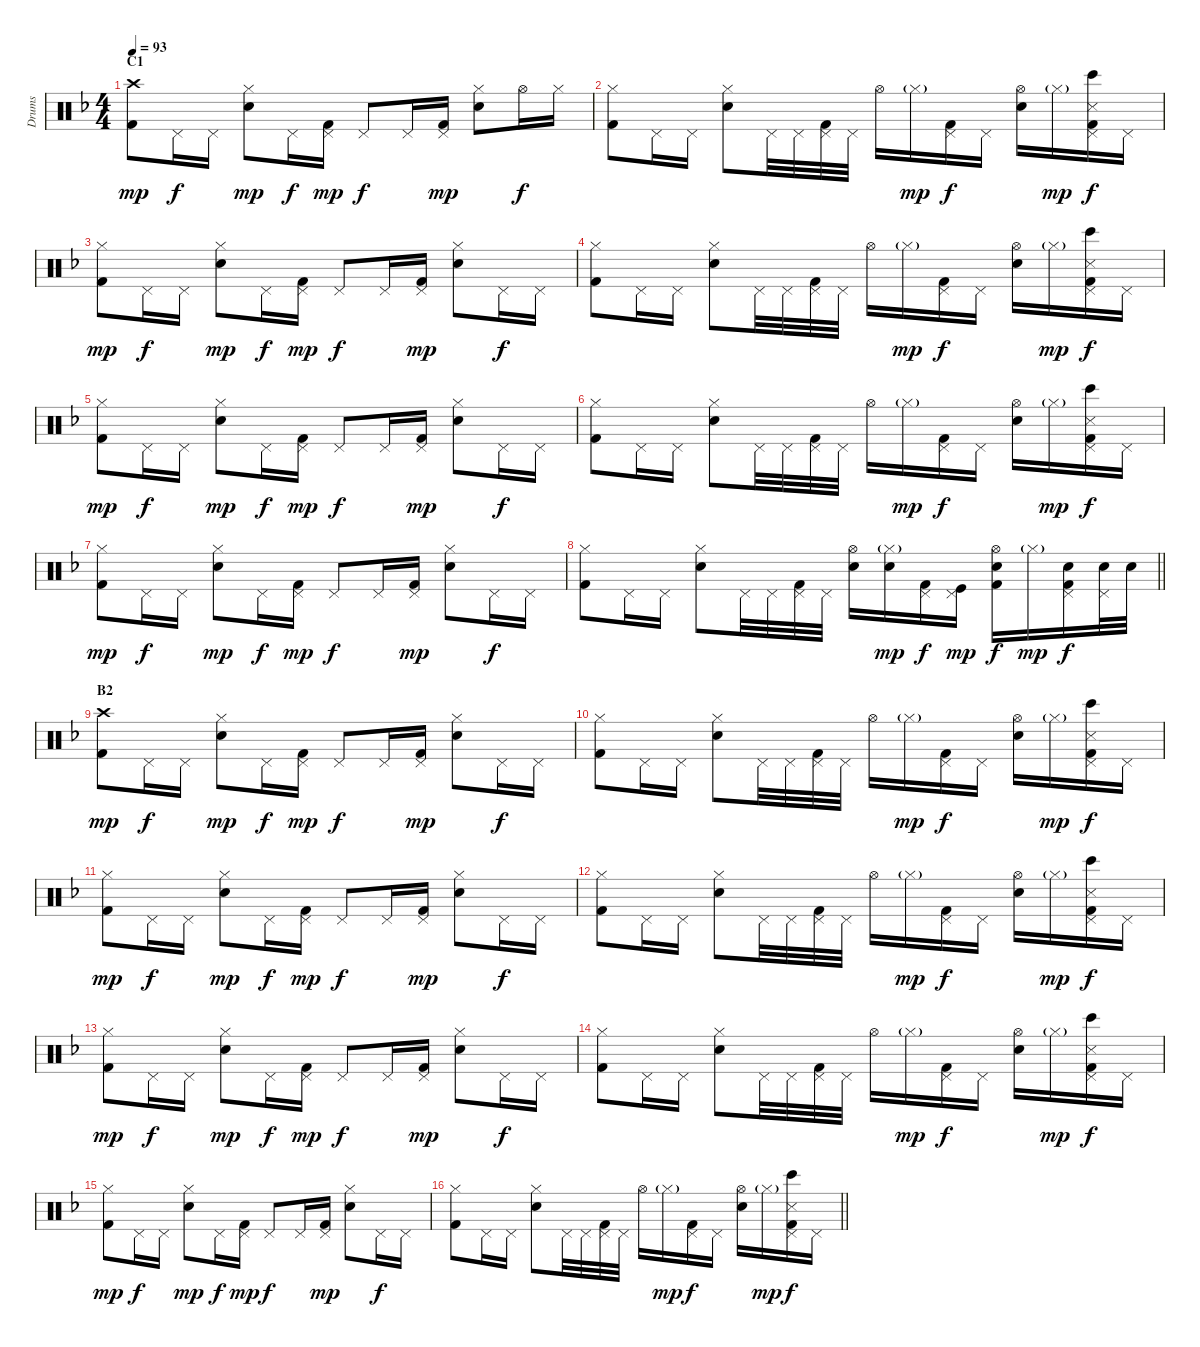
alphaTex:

\track ("Drums" "Drums") {instrument percussion}
\staff {score}
\articulation defaults
\ts (4 4)
\section ("" "C1")
\tempo 93
\clef neutral
\ks f
("Crash high (hit)" "Kick (hit) 2").8{dy mp} "Pedal Hi-Hat (hit)".16{dy f} "Pedal Hi-Hat (hit)".16 ("Hi-Hat (closed)" "Electric Snare (hit)").8{dy mp} "Pedal Hi-Hat (hit)".16{dy f} ("Pedal Hi-Hat (hit)" "Kick (hit) 2").16{dy mp} "Pedal Hi-Hat (hit)".8{dy f} "Pedal Hi-Hat (hit)".16 ("Pedal Hi-Hat (hit)" "Kick (hit) 2").16{dy mp} ("Hi-Hat (closed)" "Electric Snare (hit)").8 "Hi-Hat (open)".16{dy f} "Hi-Hat (closed)".16 |
("Hi-Hat (closed)" "Kick (hit) 2").8 "Pedal Hi-Hat (hit)".16 "Pedal Hi-Hat (hit)".16 ("Hi-Hat (closed)" "Electric Snare (hit)").8 "Pedal Hi-Hat (hit)".32 "Pedal Hi-Hat (hit)".32 ("Pedal Hi-Hat (hit)" "Kick (hit) 2").32 "Pedal Hi-Hat (hit)".32 "Hi-Hat (open)".16 "Hi-Hat (closed)"{g}.16{dy mp} ("Pedal Hi-Hat (hit)" "Kick (hit) 2").16{dy f} "Pedal Hi-Hat (hit)".16 ("Hi-Hat (open)" "Electric Snare (hit)").16 "Hi-Hat (closed)"{g}.16{dy mp} ("Pedal Hi-Hat (hit)" "Snare (side stick) 3" "Bongo High (hit)" "Kick (hit) 2").16{dy f} "Pedal Hi-Hat (hit)".16 |
("Hi-Hat (closed)" "Kick (hit) 2").8{dy mp} "Pedal Hi-Hat (hit)".16{dy f} "Pedal Hi-Hat (hit)".16 ("Hi-Hat (closed)" "Electric Snare (hit)").8{dy mp} "Pedal Hi-Hat (hit)".16{dy f} ("Pedal Hi-Hat (hit)" "Kick (hit) 2").16{dy mp} "Pedal Hi-Hat (hit)".8{dy f} "Pedal Hi-Hat (hit)".16 ("Pedal Hi-Hat (hit)" "Kick (hit) 2").16{dy mp} ("Hi-Hat (closed)" "Electric Snare (hit)").8 "Pedal Hi-Hat (hit)".16{dy f} "Pedal Hi-Hat (hit)".16 |
("Hi-Hat (closed)" "Kick (hit) 2").8 "Pedal Hi-Hat (hit)".16 "Pedal Hi-Hat (hit)".16 ("Hi-Hat (closed)" "Electric Snare (hit)").8 "Pedal Hi-Hat (hit)".32 "Pedal Hi-Hat (hit)".32 ("Pedal Hi-Hat (hit)" "Kick (hit) 2").32 "Pedal Hi-Hat (hit)".32 "Hi-Hat (open)".16 "Hi-Hat (closed)"{g}.16{dy mp} ("Pedal Hi-Hat (hit)" "Kick (hit) 2").16{dy f} "Pedal Hi-Hat (hit)".16 ("Hi-Hat (open)" "Electric Snare (hit)").16 "Hi-Hat (closed)"{g}.16{dy mp} ("Pedal Hi-Hat (hit)" "Snare (side stick) 3" "Bongo High (hit)" "Kick (hit) 2").16{dy f} "Pedal Hi-Hat (hit)".16 |
("Hi-Hat (closed)" "Kick (hit) 2").8{dy mp} "Pedal Hi-Hat (hit)".16{dy f} "Pedal Hi-Hat (hit)".16 ("Hi-Hat (closed)" "Electric Snare (hit)").8{dy mp} "Pedal Hi-Hat (hit)".16{dy f} ("Pedal Hi-Hat (hit)" "Kick (hit) 2").16{dy mp} "Pedal Hi-Hat (hit)".8{dy f} "Pedal Hi-Hat (hit)".16 ("Pedal Hi-Hat (hit)" "Kick (hit) 2").16{dy mp} ("Hi-Hat (closed)" "Electric Snare (hit)").8 "Pedal Hi-Hat (hit)".16{dy f} "Pedal Hi-Hat (hit)".16 |
("Hi-Hat (closed)" "Kick (hit) 2").8 "Pedal Hi-Hat (hit)".16 "Pedal Hi-Hat (hit)".16 ("Hi-Hat (closed)" "Electric Snare (hit)").8 "Pedal Hi-Hat (hit)".32 "Pedal Hi-Hat (hit)".32 ("Pedal Hi-Hat (hit)" "Kick (hit) 2").32 "Pedal Hi-Hat (hit)".32 "Hi-Hat (open)".16 "Hi-Hat (closed)"{g}.16{dy mp} ("Pedal Hi-Hat (hit)" "Kick (hit) 2").16{dy f} "Pedal Hi-Hat (hit)".16 ("Hi-Hat (open)" "Electric Snare (hit)").16 "Hi-Hat (closed)"{g}.16{dy mp} ("Pedal Hi-Hat (hit)" "Snare (side stick) 3" "Bongo High (hit)" "Kick (hit) 2").16{dy f} "Pedal Hi-Hat (hit)".16 |
("Hi-Hat (closed)" "Kick (hit) 2").8{dy mp} "Pedal Hi-Hat (hit)".16{dy f} "Pedal Hi-Hat (hit)".16 ("Hi-Hat (closed)" "Electric Snare (hit)").8{dy mp} "Pedal Hi-Hat (hit)".16{dy f} ("Pedal Hi-Hat (hit)" "Kick (hit) 2").16{dy mp} "Pedal Hi-Hat (hit)".8{dy f} "Pedal Hi-Hat (hit)".16 ("Pedal Hi-Hat (hit)" "Kick (hit) 2").16{dy mp} ("Hi-Hat (closed)" "Electric Snare (hit)").8 "Pedal Hi-Hat (hit)".16{dy f} "Pedal Hi-Hat (hit)".16 |
\barLineRight lightlight
("Hi-Hat (closed)" "Kick (hit) 2").8 "Pedal Hi-Hat (hit)".16 "Pedal Hi-Hat (hit)".16 ("Hi-Hat (closed)" "Electric Snare (hit)").8 "Pedal Hi-Hat (hit)".32 "Pedal Hi-Hat (hit)".32 ("Pedal Hi-Hat (hit)" "Kick (hit) 2").32 "Pedal Hi-Hat (hit)".32 ("Hi-Hat (open)" "Electric Snare (hit)").16 ("Hi-Hat (closed)"{g} "Electric Snare (hit)").16{dy mp} ("Pedal Hi-Hat (hit)" "Kick (hit) 2").16{dy f} ("Pedal Hi-Hat (hit)" "Kick (hit)").16{dy mp} ("Hi-Hat (open)" "Electric Snare (hit)" "Kick (hit) 2").16{dy f} "Hi-Hat (closed)"{g}.16{dy mp} ("Pedal Hi-Hat (hit)" "Electric Snare (hit)" "Kick (hit) 2").16{dy f} ("Pedal Hi-Hat (hit)" "Electric Snare (hit)").32 "Electric Snare (hit)".32 |
\section ("" "B2")
("Crash high (hit)" "Kick (hit) 2").8{dy mp} "Pedal Hi-Hat (hit)".16{dy f} "Pedal Hi-Hat (hit)".16 ("Hi-Hat (closed)" "Electric Snare (hit)").8{dy mp} "Pedal Hi-Hat (hit)".16{dy f} ("Pedal Hi-Hat (hit)" "Kick (hit) 2").16{dy mp} "Pedal Hi-Hat (hit)".8{dy f} "Pedal Hi-Hat (hit)".16 ("Pedal Hi-Hat (hit)" "Kick (hit) 2").16{dy mp} ("Hi-Hat (closed)" "Electric Snare (hit)").8 "Pedal Hi-Hat (hit)".16{dy f} "Pedal Hi-Hat (hit)".16 |
("Hi-Hat (closed)" "Kick (hit) 2").8 "Pedal Hi-Hat (hit)".16 "Pedal Hi-Hat (hit)".16 ("Hi-Hat (closed)" "Electric Snare (hit)").8 "Pedal Hi-Hat (hit)".32 "Pedal Hi-Hat (hit)".32 ("Pedal Hi-Hat (hit)" "Kick (hit) 2").32 "Pedal Hi-Hat (hit)".32 "Hi-Hat (open)".16 "Hi-Hat (closed)"{g}.16{dy mp} ("Pedal Hi-Hat (hit)" "Kick (hit) 2").16{dy f} "Pedal Hi-Hat (hit)".16 ("Hi-Hat (open)" "Electric Snare (hit)").16 "Hi-Hat (closed)"{g}.16{dy mp} ("Pedal Hi-Hat (hit)" "Snare (side stick) 3" "Bongo High (hit)" "Kick (hit) 2").16{dy f} "Pedal Hi-Hat (hit)".16 |
("Hi-Hat (closed)" "Kick (hit) 2").8{dy mp} "Pedal Hi-Hat (hit)".16{dy f} "Pedal Hi-Hat (hit)".16 ("Hi-Hat (closed)" "Electric Snare (hit)").8{dy mp} "Pedal Hi-Hat (hit)".16{dy f} ("Pedal Hi-Hat (hit)" "Kick (hit) 2").16{dy mp} "Pedal Hi-Hat (hit)".8{dy f} "Pedal Hi-Hat (hit)".16 ("Pedal Hi-Hat (hit)" "Kick (hit) 2").16{dy mp} ("Hi-Hat (closed)" "Electric Snare (hit)").8 "Pedal Hi-Hat (hit)".16{dy f} "Pedal Hi-Hat (hit)".16 |
("Hi-Hat (closed)" "Kick (hit) 2").8 "Pedal Hi-Hat (hit)".16 "Pedal Hi-Hat (hit)".16 ("Hi-Hat (closed)" "Electric Snare (hit)").8 "Pedal Hi-Hat (hit)".32 "Pedal Hi-Hat (hit)".32 ("Pedal Hi-Hat (hit)" "Kick (hit) 2").32 "Pedal Hi-Hat (hit)".32 "Hi-Hat (open)".16 "Hi-Hat (closed)"{g}.16{dy mp} ("Pedal Hi-Hat (hit)" "Kick (hit) 2").16{dy f} "Pedal Hi-Hat (hit)".16 ("Hi-Hat (open)" "Electric Snare (hit)").16 "Hi-Hat (closed)"{g}.16{dy mp} ("Pedal Hi-Hat (hit)" "Snare (side stick) 3" "Bongo High (hit)" "Kick (hit) 2").16{dy f} "Pedal Hi-Hat (hit)".16 |
("Hi-Hat (closed)" "Kick (hit) 2").8{dy mp} "Pedal Hi-Hat (hit)".16{dy f} "Pedal Hi-Hat (hit)".16 ("Hi-Hat (closed)" "Electric Snare (hit)").8{dy mp} "Pedal Hi-Hat (hit)".16{dy f} ("Pedal Hi-Hat (hit)" "Kick (hit) 2").16{dy mp} "Pedal Hi-Hat (hit)".8{dy f} "Pedal Hi-Hat (hit)".16 ("Pedal Hi-Hat (hit)" "Kick (hit) 2").16{dy mp} ("Hi-Hat (closed)" "Electric Snare (hit)").8 "Pedal Hi-Hat (hit)".16{dy f} "Pedal Hi-Hat (hit)".16 |
("Hi-Hat (closed)" "Kick (hit) 2").8 "Pedal Hi-Hat (hit)".16 "Pedal Hi-Hat (hit)".16 ("Hi-Hat (closed)" "Electric Snare (hit)").8 "Pedal Hi-Hat (hit)".32 "Pedal Hi-Hat (hit)".32 ("Pedal Hi-Hat (hit)" "Kick (hit) 2").32 "Pedal Hi-Hat (hit)".32 "Hi-Hat (open)".16 "Hi-Hat (closed)"{g}.16{dy mp} ("Pedal Hi-Hat (hit)" "Kick (hit) 2").16{dy f} "Pedal Hi-Hat (hit)".16 ("Hi-Hat (open)" "Electric Snare (hit)").16 "Hi-Hat (closed)"{g}.16{dy mp} ("Pedal Hi-Hat (hit)" "Snare (side stick) 3" "Bongo High (hit)" "Kick (hit) 2").16{dy f} "Pedal Hi-Hat (hit)".16 |
("Hi-Hat (closed)" "Kick (hit) 2").8{dy mp} "Pedal Hi-Hat (hit)".16{dy f} "Pedal Hi-Hat (hit)".16 ("Hi-Hat (closed)" "Electric Snare (hit)").8{dy mp} "Pedal Hi-Hat (hit)".16{dy f} ("Pedal Hi-Hat (hit)" "Kick (hit) 2").16{dy mp} "Pedal Hi-Hat (hit)".8{dy f} "Pedal Hi-Hat (hit)".16 ("Pedal Hi-Hat (hit)" "Kick (hit) 2").16{dy mp} ("Hi-Hat (closed)" "Electric Snare (hit)").8 "Pedal Hi-Hat (hit)".16{dy f} "Pedal Hi-Hat (hit)".16 |
\barLineRight lightlight
("Hi-Hat (closed)" "Kick (hit) 2").8 "Pedal Hi-Hat (hit)".16 "Pedal Hi-Hat (hit)".16 ("Hi-Hat (closed)" "Electric Snare (hit)").8 "Pedal Hi-Hat (hit)".32 "Pedal Hi-Hat (hit)".32 ("Pedal Hi-Hat (hit)" "Kick (hit) 2").32 "Pedal Hi-Hat (hit)".32 "Hi-Hat (open)".16 "Hi-Hat (closed)"{g}.16{dy mp} ("Pedal Hi-Hat (hit)" "Kick (hit) 2").16{dy f} "Pedal Hi-Hat (hit)".16 ("Hi-Hat (open)" "Electric Snare (hit)").16 "Hi-Hat (closed)"{g}.16{dy mp} ("Pedal Hi-Hat (hit)" "Snare (side stick) 3" "Bongo High (hit)" "Kick (hit) 2").16{dy f} "Pedal Hi-Hat (hit)".16
